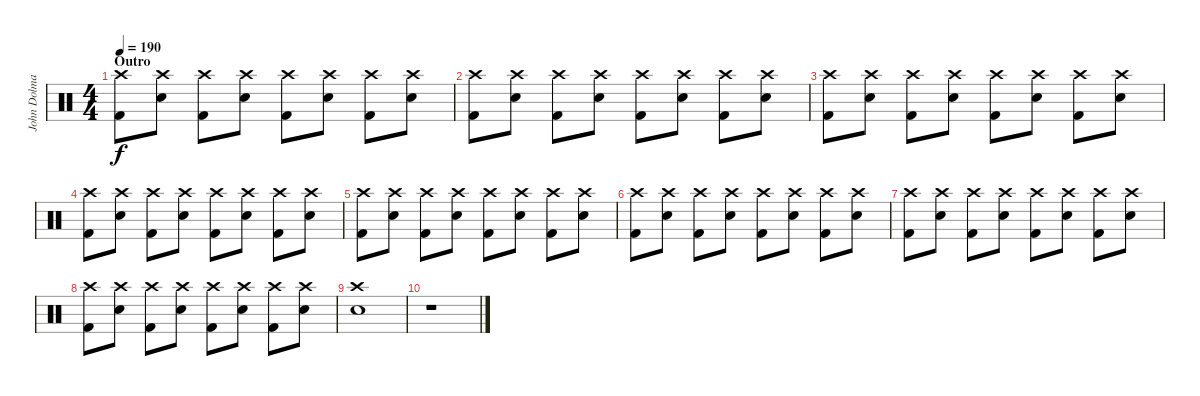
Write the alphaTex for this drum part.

\track ("John Dolmayan" "John Dolma") {instrument percussion}
\staff {score}
\articulation defaults
\ts (4 4)
\section ("" "Outro")
\tempo 190
\clef neutral
\ks c
("Crash high (hit)" "Kick (hit) 2").8{dy f} ("Crash high (hit)" "Electric Snare (hit)").8 ("Crash high (hit)" "Kick (hit) 2").8 ("Crash high (hit)" "Electric Snare (hit)").8 ("Crash high (hit)" "Kick (hit) 2").8 ("Crash high (hit)" "Electric Snare (hit)").8 ("Crash high (hit)" "Kick (hit) 2").8 ("Crash high (hit)" "Electric Snare (hit)").8 |
("Crash high (hit)" "Kick (hit) 2").8 ("Crash high (hit)" "Electric Snare (hit)").8 ("Crash high (hit)" "Kick (hit) 2").8 ("Crash high (hit)" "Electric Snare (hit)").8 ("Crash high (hit)" "Kick (hit) 2").8 ("Crash high (hit)" "Electric Snare (hit)").8 ("Crash high (hit)" "Kick (hit) 2").8 ("Crash high (hit)" "Electric Snare (hit)").8 |
("Crash high (hit)" "Kick (hit) 2").8 ("Crash high (hit)" "Electric Snare (hit)").8 ("Crash high (hit)" "Kick (hit) 2").8 ("Crash high (hit)" "Electric Snare (hit)").8 ("Crash high (hit)" "Kick (hit) 2").8 ("Crash high (hit)" "Electric Snare (hit)").8 ("Crash high (hit)" "Kick (hit) 2").8 ("Crash high (hit)" "Electric Snare (hit)").8 |
("Crash high (hit)" "Kick (hit) 2").8 ("Crash high (hit)" "Electric Snare (hit)").8 ("Crash high (hit)" "Kick (hit) 2").8 ("Crash high (hit)" "Electric Snare (hit)").8 ("Crash high (hit)" "Kick (hit) 2").8 ("Crash high (hit)" "Electric Snare (hit)").8 ("Crash high (hit)" "Kick (hit) 2").8 ("Crash high (hit)" "Electric Snare (hit)").8 |
("Crash high (hit)" "Kick (hit) 2").8 ("Crash high (hit)" "Electric Snare (hit)").8 ("Crash high (hit)" "Kick (hit) 2").8 ("Crash high (hit)" "Electric Snare (hit)").8 ("Crash high (hit)" "Kick (hit) 2").8 ("Crash high (hit)" "Electric Snare (hit)").8 ("Crash high (hit)" "Kick (hit) 2").8 ("Crash high (hit)" "Electric Snare (hit)").8 |
("Crash high (hit)" "Kick (hit) 2").8 ("Crash high (hit)" "Electric Snare (hit)").8 ("Crash high (hit)" "Kick (hit) 2").8 ("Crash high (hit)" "Electric Snare (hit)").8 ("Crash high (hit)" "Kick (hit) 2").8 ("Crash high (hit)" "Electric Snare (hit)").8 ("Crash high (hit)" "Kick (hit) 2").8 ("Crash high (hit)" "Electric Snare (hit)").8 |
("Crash high (hit)" "Kick (hit) 2").8 ("Crash high (hit)" "Electric Snare (hit)").8 ("Crash high (hit)" "Kick (hit) 2").8 ("Crash high (hit)" "Electric Snare (hit)").8 ("Crash high (hit)" "Kick (hit) 2").8 ("Crash high (hit)" "Electric Snare (hit)").8 ("Crash high (hit)" "Kick (hit) 2").8 ("Crash high (hit)" "Electric Snare (hit)").8 |
("Crash high (hit)" "Kick (hit) 2").8 ("Crash high (hit)" "Electric Snare (hit)").8 ("Crash high (hit)" "Kick (hit) 2").8 ("Crash high (hit)" "Electric Snare (hit)").8 ("Crash high (hit)" "Kick (hit) 2").8 ("Crash high (hit)" "Electric Snare (hit)").8 ("Crash high (hit)" "Kick (hit) 2").8 ("Crash high (hit)" "Electric Snare (hit)").8 |
("Crash high (hit)" "Electric Snare (hit)").1 |
r.1
